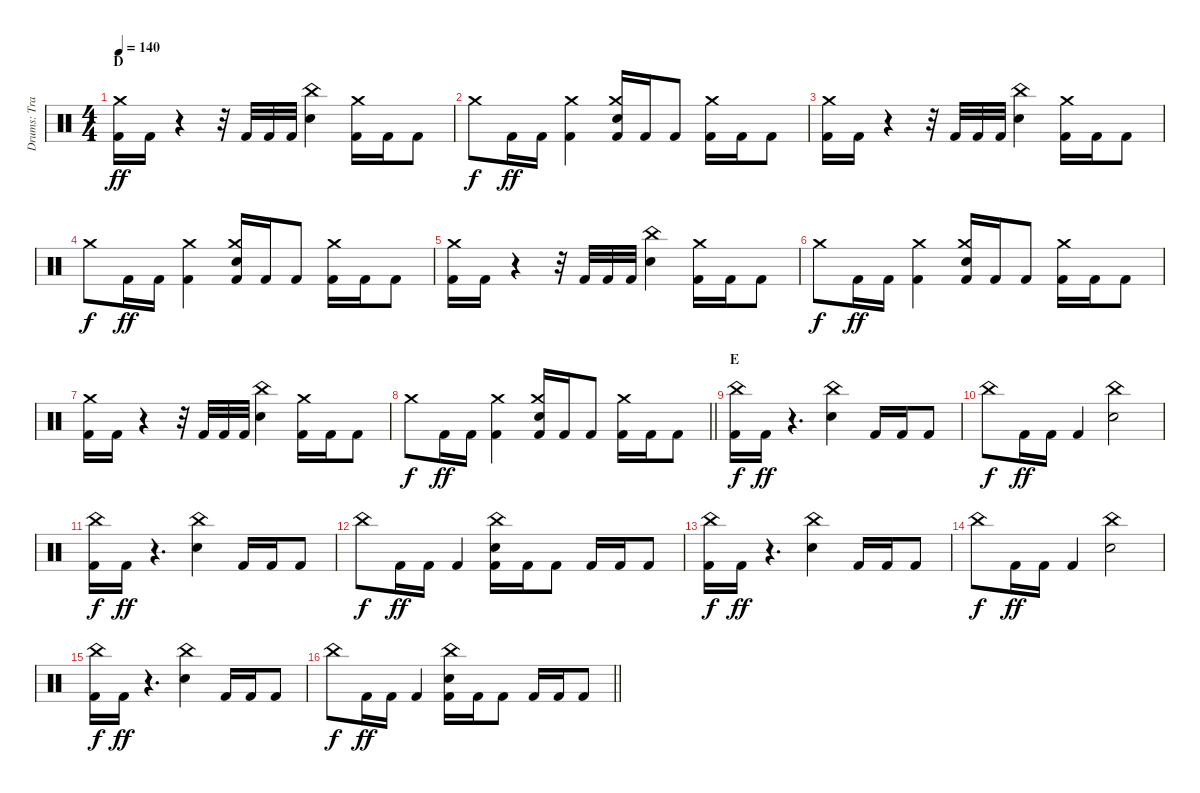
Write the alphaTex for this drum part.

\track ("Drums: Travis Clarke" "Drums: Tra") {instrument percussion}
\staff {score}
\articulation defaults
\ts (4 4)
\section ("" "D")
\tempo 140
\clef neutral
\ks c
("Kick (hit) 2" "Crash medium (hit)").16{dy ff} "Kick (hit) 2".16 r.4 r.32 "Kick (hit) 2".32 "Kick (hit) 2".32 "Kick (hit) 2".32 ("Snare (hit) 2" "China (hit)").4 ("Kick (hit) 2" "Crash medium (hit)").16 "Kick (hit) 2".16 "Kick (hit) 2".8 |
"Crash medium (hit)".8{dy f} "Kick (hit) 2".16{dy ff} "Kick (hit) 2".16 ("Kick (hit) 2" "Crash medium (hit)").4 ("Kick (hit) 2" "Snare (hit) 2" "Crash medium (hit)").16 "Kick (hit) 2".16 "Kick (hit) 2".8 ("Kick (hit) 2" "Crash medium (hit)").16 "Kick (hit) 2".16 "Kick (hit) 2".8 |
("Kick (hit) 2" "Crash medium (hit)").16 "Kick (hit) 2".16 r.4 r.32 "Kick (hit) 2".32 "Kick (hit) 2".32 "Kick (hit) 2".32 ("Snare (hit) 2" "China (hit)").4 ("Kick (hit) 2" "Crash medium (hit)").16 "Kick (hit) 2".16 "Kick (hit) 2".8 |
"Crash medium (hit)".8{dy f} "Kick (hit) 2".16{dy ff} "Kick (hit) 2".16 ("Kick (hit) 2" "Crash medium (hit)").4 ("Kick (hit) 2" "Snare (hit) 2" "Crash medium (hit)").16 "Kick (hit) 2".16 "Kick (hit) 2".8 ("Kick (hit) 2" "Crash medium (hit)").16 "Kick (hit) 2".16 "Kick (hit) 2".8 |
("Kick (hit) 2" "Crash medium (hit)").16 "Kick (hit) 2".16 r.4 r.32 "Kick (hit) 2".32 "Kick (hit) 2".32 "Kick (hit) 2".32 ("Snare (hit) 2" "China (hit)").4 ("Kick (hit) 2" "Crash medium (hit)").16 "Kick (hit) 2".16 "Kick (hit) 2".8 |
"Crash medium (hit)".8{dy f} "Kick (hit) 2".16{dy ff} "Kick (hit) 2".16 ("Kick (hit) 2" "Crash medium (hit)").4 ("Kick (hit) 2" "Snare (hit) 2" "Crash medium (hit)").16 "Kick (hit) 2".16 "Kick (hit) 2".8 ("Kick (hit) 2" "Crash medium (hit)").16 "Kick (hit) 2".16 "Kick (hit) 2".8 |
("Kick (hit) 2" "Crash medium (hit)").16 "Kick (hit) 2".16 r.4 r.32 "Kick (hit) 2".32 "Kick (hit) 2".32 "Kick (hit) 2".32 ("Snare (hit) 2" "China (hit)").4 ("Kick (hit) 2" "Crash medium (hit)").16 "Kick (hit) 2".16 "Kick (hit) 2".8 |
\barLineRight lightlight "Crash medium (hit)".8{dy f} "Kick (hit) 2".16{dy ff} "Kick (hit) 2".16
("Kick (hit) 2" "Crash medium (hit)").4 ("Kick (hit) 2" "Snare (hit) 2" "Crash medium (hit)").16 "Kick (hit) 2".16 "Kick (hit) 2".8 ("Kick (hit) 2" "Crash medium (hit)").16 "Kick (hit) 2".16 "Kick (hit) 2".8 |
\section ("" "E")
("Kick (hit) 2" "China (hit)").16{dy f} "Kick (hit) 2".16{dy ff} r.4{d} ("Snare (hit) 2" "China (hit)").4 "Kick (hit) 2".16 "Kick (hit) 2".16 "Kick (hit) 2".8 |
"China (hit)".8{dy f} "Kick (hit) 2".16{dy ff} "Kick (hit) 2".16 "Kick (hit) 2".4 ("Snare (hit) 2" "China (hit)").2 |
("Kick (hit) 2" "China (hit)").16{dy f} "Kick (hit) 2".16{dy ff} r.4{d} ("Snare (hit) 2" "China (hit)").4 "Kick (hit) 2".16 "Kick (hit) 2".16 "Kick (hit) 2".8 |
"China (hit)".8{dy f} "Kick (hit) 2".16{dy ff} "Kick (hit) 2".16 "Kick (hit) 2".4 ("Kick (hit) 2" "Snare (hit) 2" "China (hit)").16 "Kick (hit) 2".16 "Kick (hit) 2".8 "Kick (hit) 2".16 "Kick (hit) 2".16 "Kick (hit) 2".8 |
("Kick (hit) 2" "China (hit)").16{dy f} "Kick (hit) 2".16{dy ff} r.4{d} ("Snare (hit) 2" "China (hit)").4 "Kick (hit) 2".16 "Kick (hit) 2".16 "Kick (hit) 2".8 |
"China (hit)".8{dy f} "Kick (hit) 2".16{dy ff} "Kick (hit) 2".16 "Kick (hit) 2".4 ("Snare (hit) 2" "China (hit)").2 |
("Kick (hit) 2" "China (hit)").16{dy f} "Kick (hit) 2".16{dy ff} r.4{d} ("Snare (hit) 2" "China (hit)").4 "Kick (hit) 2".16 "Kick (hit) 2".16 "Kick (hit) 2".8 |
\barLineRight lightlight "China (hit)".8{dy f} "Kick (hit) 2".16{dy ff} "Kick (hit) 2".16 "Kick (hit) 2".4
("Kick (hit) 2" "Snare (hit) 2" "China (hit)").16 "Kick (hit) 2".16 "Kick (hit) 2".8 "Kick (hit) 2".16 "Kick (hit) 2".16 "Kick (hit) 2".8
